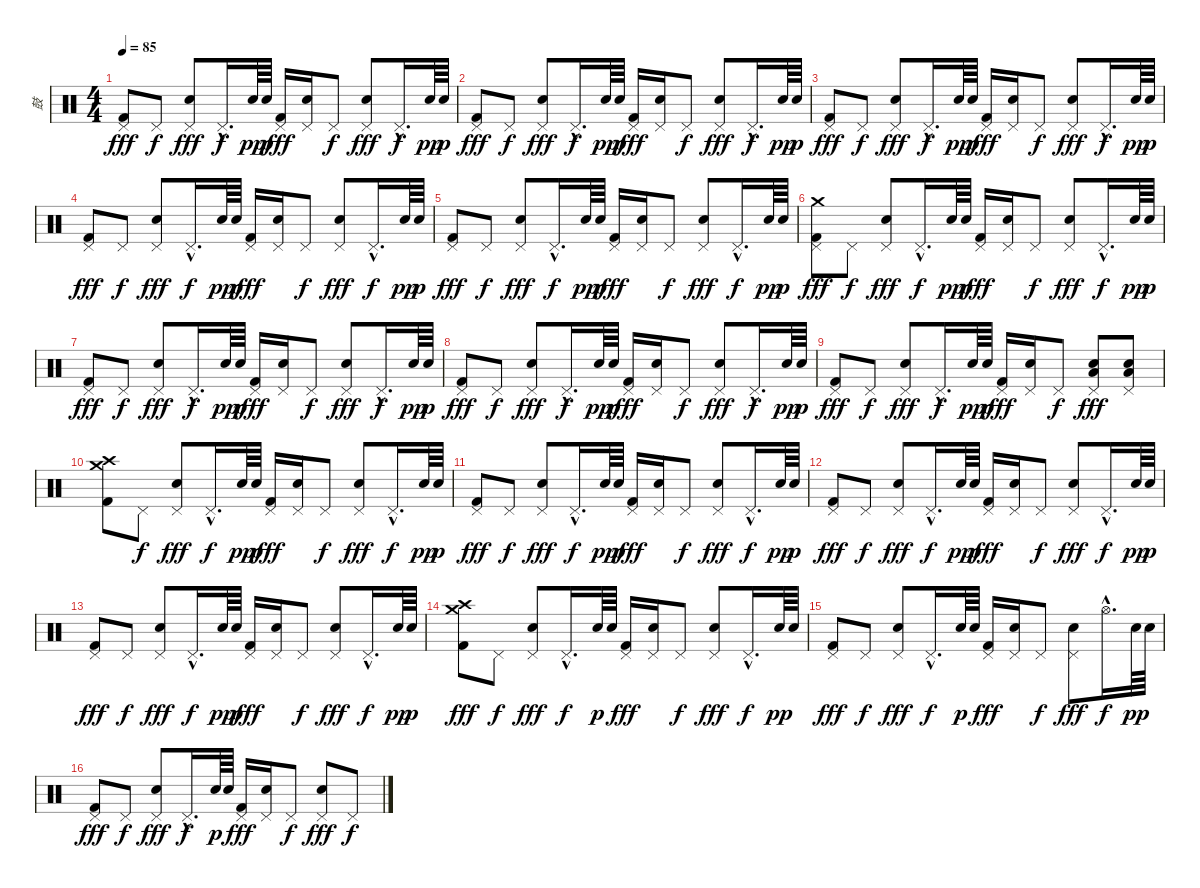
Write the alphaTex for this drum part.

\track ("鼓" "鼓") {instrument percussion}
\staff {score}
\articulation defaults
\ts (4 4)
\tempo 85
\clef neutral
\ks c
("Pedal Hi-Hat (hit)" "Kick (hit) 2").8{dy fff} "Pedal Hi-Hat (hit)".8{dy f} ("Pedal Hi-Hat (hit)" "Snare (hit) 2").8{dy fff} "Pedal Hi-Hat (hit)"{hac}.16{d dy f} "Snare (hit) 2".64{dy pp} "Snare (hit) 2".64{dy p} ("Pedal Hi-Hat (hit)" "Kick (hit) 2").16{dy fff} ("Pedal Hi-Hat (hit)" "Snare (hit) 2").16 "Pedal Hi-Hat (hit)".8{dy f} ("Pedal Hi-Hat (hit)" "Snare (hit) 2").8{dy fff} "Pedal Hi-Hat (hit)"{hac}.16{d dy f} "Snare (hit) 2".64{dy pp} "Snare (hit) 2".64{dy p} |
("Pedal Hi-Hat (hit)" "Kick (hit) 2").8{dy fff} "Pedal Hi-Hat (hit)".8{dy f} ("Pedal Hi-Hat (hit)" "Snare (hit) 2").8{dy fff} "Pedal Hi-Hat (hit)"{hac}.16{d dy f} "Snare (hit) 2".64{dy pp} "Snare (hit) 2".64{dy p} ("Pedal Hi-Hat (hit)" "Kick (hit) 2").16{dy fff} ("Pedal Hi-Hat (hit)" "Snare (hit) 2").16 "Pedal Hi-Hat (hit)".8{dy f} ("Pedal Hi-Hat (hit)" "Snare (hit) 2").8{dy fff} "Pedal Hi-Hat (hit)"{hac}.16{d dy f} "Snare (hit) 2".64{dy pp} "Snare (hit) 2".64{dy p} |
("Pedal Hi-Hat (hit)" "Kick (hit) 2").8{dy fff} "Pedal Hi-Hat (hit)".8{dy f} ("Pedal Hi-Hat (hit)" "Snare (hit) 2").8{dy fff} "Pedal Hi-Hat (hit)"{hac}.16{d dy f} "Snare (hit) 2".64{dy pp} "Snare (hit) 2".64{dy p} ("Pedal Hi-Hat (hit)" "Kick (hit) 2").16{dy fff} ("Pedal Hi-Hat (hit)" "Snare (hit) 2").16 "Pedal Hi-Hat (hit)".8{dy f} ("Pedal Hi-Hat (hit)" "Snare (hit) 2").8{dy fff} "Pedal Hi-Hat (hit)"{hac}.16{d dy f} "Snare (hit) 2".64{dy pp} "Snare (hit) 2".64{dy p} |
("Pedal Hi-Hat (hit)" "Kick (hit) 2").8{dy fff} "Pedal Hi-Hat (hit)".8{dy f} ("Pedal Hi-Hat (hit)" "Snare (hit) 2").8{dy fff} "Pedal Hi-Hat (hit)"{hac}.16{d dy f} "Snare (hit) 2".64{dy pp} "Snare (hit) 2".64{dy p} ("Pedal Hi-Hat (hit)" "Kick (hit) 2").16{dy fff} ("Pedal Hi-Hat (hit)" "Snare (hit) 2").16 "Pedal Hi-Hat (hit)".8{dy f} ("Pedal Hi-Hat (hit)" "Snare (hit) 2").8{dy fff} "Pedal Hi-Hat (hit)"{hac}.16{d dy f} "Snare (hit) 2".64{dy pp} "Snare (hit) 2".64{dy p} |
("Pedal Hi-Hat (hit)" "Kick (hit) 2").8{dy fff} "Pedal Hi-Hat (hit)".8{dy f} ("Pedal Hi-Hat (hit)" "Snare (hit) 2").8{dy fff} "Pedal Hi-Hat (hit)"{hac}.16{d dy f} "Snare (hit) 2".64{dy pp} "Snare (hit) 2".64{dy p} ("Pedal Hi-Hat (hit)" "Kick (hit) 2").16{dy fff} ("Pedal Hi-Hat (hit)" "Snare (hit) 2").16 "Pedal Hi-Hat (hit)".8{dy f} ("Pedal Hi-Hat (hit)" "Snare (hit) 2").8{dy fff} "Pedal Hi-Hat (hit)"{hac}.16{d dy f} "Snare (hit) 2".64{dy pp} "Snare (hit) 2".64{dy p} |
("Pedal Hi-Hat (hit)" "Crash medium (hit)" "Kick (hit) 2").8{dy fff} "Pedal Hi-Hat (hit)".8{dy f} ("Pedal Hi-Hat (hit)" "Snare (hit) 2").8{dy fff} "Pedal Hi-Hat (hit)"{hac}.16{d dy f} "Snare (hit) 2".64{dy pp} "Snare (hit) 2".64{dy p} ("Pedal Hi-Hat (hit)" "Kick (hit) 2").16{dy fff} ("Pedal Hi-Hat (hit)" "Snare (hit) 2").16 "Pedal Hi-Hat (hit)".8{dy f} ("Pedal Hi-Hat (hit)" "Snare (hit) 2").8{dy fff} "Pedal Hi-Hat (hit)"{hac}.16{d dy f} "Snare (hit) 2".64{dy pp} "Snare (hit) 2".64{dy p} |
("Pedal Hi-Hat (hit)" "Kick (hit) 2").8{dy fff} "Pedal Hi-Hat (hit)".8{dy f} ("Pedal Hi-Hat (hit)" "Snare (hit) 2").8{dy fff} "Pedal Hi-Hat (hit)"{hac}.16{d dy f} "Snare (hit) 2".64{dy pp} "Snare (hit) 2".64{dy p} ("Pedal Hi-Hat (hit)" "Kick (hit) 2").16{dy fff} ("Pedal Hi-Hat (hit)" "Snare (hit) 2").16 "Pedal Hi-Hat (hit)".8{dy f} ("Pedal Hi-Hat (hit)" "Snare (hit) 2").8{dy fff} "Pedal Hi-Hat (hit)"{hac}.16{d dy f} "Snare (hit) 2".64{dy pp} "Snare (hit) 2".64{dy p} |
("Pedal Hi-Hat (hit)" "Kick (hit) 2").8{dy fff} "Pedal Hi-Hat (hit)".8{dy f} ("Pedal Hi-Hat (hit)" "Snare (hit) 2").8{dy fff} "Pedal Hi-Hat (hit)"{hac}.16{d dy f} "Snare (hit) 2".64{dy pp} "Snare (hit) 2".64{dy p} ("Pedal Hi-Hat (hit)" "Kick (hit) 2").16{dy fff} ("Pedal Hi-Hat (hit)" "Snare (hit) 2").16 "Pedal Hi-Hat (hit)".8{dy f} ("Pedal Hi-Hat (hit)" "Snare (hit) 2").8{dy fff} "Pedal Hi-Hat (hit)"{hac}.16{d dy f} "Snare (hit) 2".64{dy pp} "Snare (hit) 2".64{dy p} |
("Pedal Hi-Hat (hit)" "Kick (hit) 2").8{dy fff} "Pedal Hi-Hat (hit)".8{dy f} ("Pedal Hi-Hat (hit)" "Snare (hit) 2").8{dy fff} "Pedal Hi-Hat (hit)"{hac}.16{d dy f} "Snare (hit) 2".64{dy pp} "Snare (hit) 2".64{dy p} ("Pedal Hi-Hat (hit)" "Kick (hit) 2").16{dy fff} ("Pedal Hi-Hat (hit)" "Snare (hit) 2").16 "Pedal Hi-Hat (hit)".8{dy f} ("Pedal Hi-Hat (hit)" "Snare (hit) 2" "Low Tom (hit)").8{dy fff} ("Pedal Hi-Hat (hit)" "Snare (hit) 2" "Low Tom (hit)").8 |
("Crash medium (hit)" "Crash high (hit)" "Kick (hit) 2").8 "Pedal Hi-Hat (hit)".8{dy f} ("Pedal Hi-Hat (hit)" "Snare (hit) 2").8{dy fff} "Pedal Hi-Hat (hit)"{hac}.16{d dy f} "Snare (hit) 2".64{dy pp} "Snare (hit) 2".64{dy p} ("Pedal Hi-Hat (hit)" "Kick (hit) 2").16{dy fff} ("Pedal Hi-Hat (hit)" "Snare (hit) 2").16 "Pedal Hi-Hat (hit)".8{dy f} ("Pedal Hi-Hat (hit)" "Snare (hit) 2").8{dy fff} "Pedal Hi-Hat (hit)"{hac}.16{d dy f} "Snare (hit) 2".64{dy pp} "Snare (hit) 2".64{dy p} |
("Pedal Hi-Hat (hit)" "Kick (hit) 2").8{dy fff} "Pedal Hi-Hat (hit)".8{dy f} ("Pedal Hi-Hat (hit)" "Snare (hit) 2").8{dy fff} "Pedal Hi-Hat (hit)"{hac}.16{d dy f} "Snare (hit) 2".64{dy pp} "Snare (hit) 2".64{dy p} ("Pedal Hi-Hat (hit)" "Kick (hit) 2").16{dy fff} ("Pedal Hi-Hat (hit)" "Snare (hit) 2").16 "Pedal Hi-Hat (hit)".8{dy f} ("Pedal Hi-Hat (hit)" "Snare (hit) 2").8{dy fff} "Pedal Hi-Hat (hit)"{hac}.16{d dy f} "Snare (hit) 2".64{dy pp} "Snare (hit) 2".64{dy p} |
("Pedal Hi-Hat (hit)" "Kick (hit) 2").8{dy fff} "Pedal Hi-Hat (hit)".8{dy f} ("Pedal Hi-Hat (hit)" "Snare (hit) 2").8{dy fff} "Pedal Hi-Hat (hit)"{hac}.16{d dy f} "Snare (hit) 2".64{dy pp} "Snare (hit) 2".64{dy p} ("Pedal Hi-Hat (hit)" "Kick (hit) 2").16{dy fff} ("Pedal Hi-Hat (hit)" "Snare (hit) 2").16 "Pedal Hi-Hat (hit)".8{dy f} ("Pedal Hi-Hat (hit)" "Snare (hit) 2").8{dy fff} "Pedal Hi-Hat (hit)"{hac}.16{d dy f} "Snare (hit) 2".64{dy pp} "Snare (hit) 2".64{dy p} |
("Pedal Hi-Hat (hit)" "Kick (hit) 2").8{dy fff} "Pedal Hi-Hat (hit)".8{dy f} ("Pedal Hi-Hat (hit)" "Snare (hit) 2").8{dy fff} "Pedal Hi-Hat (hit)"{hac}.16{d dy f} "Snare (hit) 2".64{dy pp} "Snare (hit) 2".64{dy p} ("Pedal Hi-Hat (hit)" "Kick (hit) 2").16{dy fff} ("Pedal Hi-Hat (hit)" "Snare (hit) 2").16 "Pedal Hi-Hat (hit)".8{dy f} ("Pedal Hi-Hat (hit)" "Snare (hit) 2").8{dy fff} "Pedal Hi-Hat (hit)"{hac}.16{d dy f} "Snare (hit) 2".64{dy pp} "Snare (hit) 2".64{dy p} |
("Crash high (hit)" "Crash medium (hit)" "Kick (hit) 2").8{dy fff} "Pedal Hi-Hat (hit)".8{dy f} ("Pedal Hi-Hat (hit)" "Snare (hit) 2").8{dy fff} "Pedal Hi-Hat (hit)"{hac}.16{d dy f} "Snare (hit) 2".64{dy p} "Snare (hit) 2".64 ("Pedal Hi-Hat (hit)" "Kick (hit) 2").16{dy fff} ("Pedal Hi-Hat (hit)" "Snare (hit) 2").16 "Pedal Hi-Hat (hit)".8{dy f} ("Pedal Hi-Hat (hit)" "Snare (hit) 2").8{dy fff} "Pedal Hi-Hat (hit)"{hac}.16{d dy f} "Snare (hit) 2".64{dy pp} "Snare (hit) 2".64 |
("Pedal Hi-Hat (hit)" "Kick (hit) 2").8{dy fff} "Pedal Hi-Hat (hit)".8{dy f} ("Pedal Hi-Hat (hit)" "Snare (hit) 2").8{dy fff} "Pedal Hi-Hat (hit)"{hac}.16{d dy f} "Snare (hit) 2".64{dy p} "Snare (hit) 2".64 ("Pedal Hi-Hat (hit)" "Kick (hit) 2").16{dy fff} ("Pedal Hi-Hat (hit)" "Snare (hit) 2").16 "Pedal Hi-Hat (hit)".8{dy f} ("Pedal Hi-Hat (hit)" "Snare (hit) 2").8{dy fff} "Hi-Hat (open)"{hac}.16{d dy f} "Snare (hit) 2".64{dy pp} "Snare (hit) 2".64 |
("Pedal Hi-Hat (hit)" "Kick (hit) 2").8{dy fff} "Pedal Hi-Hat (hit)".8{dy f} ("Pedal Hi-Hat (hit)" "Snare (hit) 2").8{dy fff} "Pedal Hi-Hat (hit)"{hac}.16{d dy f} "Snare (hit) 2".64{dy p} "Snare (hit) 2".64 ("Pedal Hi-Hat (hit)" "Kick (hit) 2").16{dy fff} ("Pedal Hi-Hat (hit)" "Snare (hit) 2").16 "Pedal Hi-Hat (hit)".8{dy f} ("Pedal Hi-Hat (hit)" "Snare (hit) 2").8{dy fff} "Pedal Hi-Hat (hit)".8{dy f}
